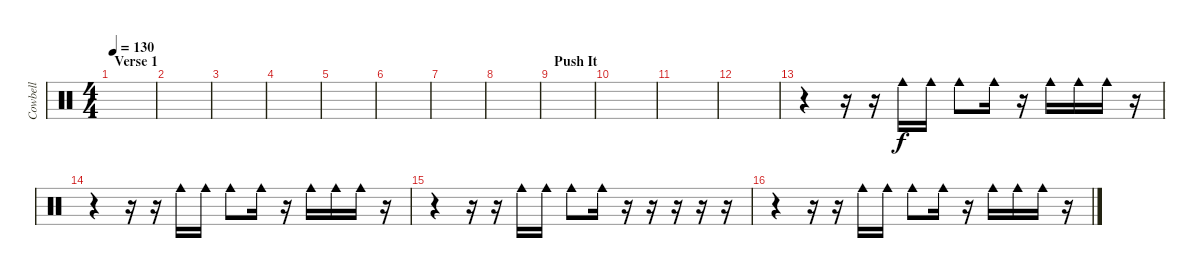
\track ("Cowbell" "Cowbell") {instrument percussion}
\staff {score}
\articulation defaults
\ts (4 4)
\section ("" "Verse 1")
\tempo 130
\clef neutral
\ks c
|
|
|
|
|
|
|
|
\section ("" "Push It")
|
|
|
|
r.4 r.16 r.16 "Cowbell medium (hit)".16 "Cowbell medium (hit)".16 "Cowbell medium (hit)".8 "Cowbell medium (hit)".16 r.16 "Cowbell medium (hit)".16 "Cowbell medium (hit)".16 "Cowbell medium (hit)".16 r.16 |
r.4 r.16 r.16 "Cowbell medium (hit)".16 "Cowbell medium (hit)".16 "Cowbell medium (hit)".8 "Cowbell medium (hit)".16 r.16 "Cowbell medium (hit)".16 "Cowbell medium (hit)".16 "Cowbell medium (hit)".16 r.16 |
r.4 r.16 r.16 "Cowbell medium (hit)".16 "Cowbell medium (hit)".16 "Cowbell medium (hit)".8 "Cowbell medium (hit)".16 r.16 r.16 r.16 r.16 r.16 |
r.4 r.16 r.16 "Cowbell medium (hit)".16 "Cowbell medium (hit)".16 "Cowbell medium (hit)".8 "Cowbell medium (hit)".16 r.16 "Cowbell medium (hit)".16 "Cowbell medium (hit)".16 "Cowbell medium (hit)".16 r.16
